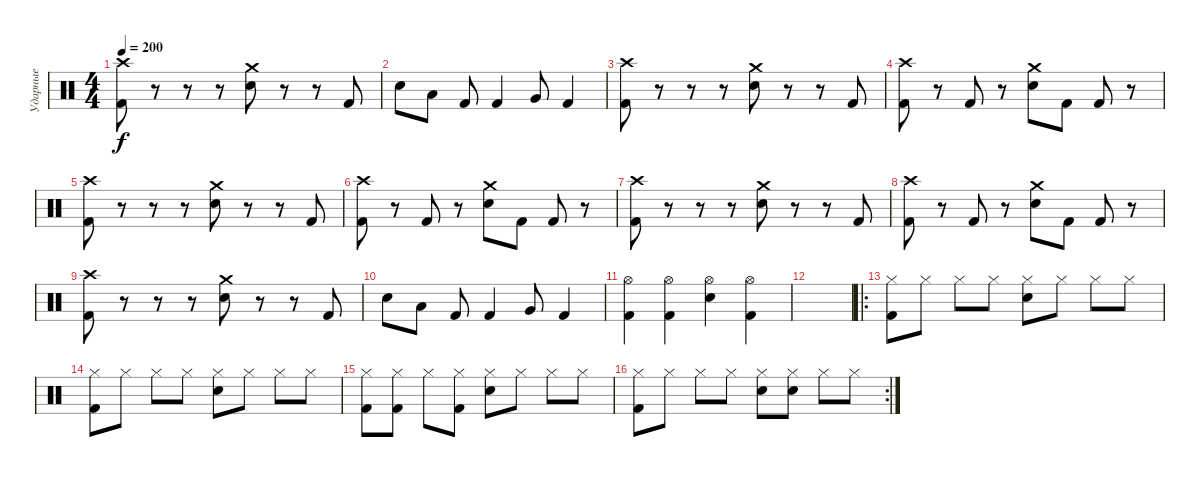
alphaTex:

\track ("Ударные" "Ударные") {instrument percussion}
\staff {score}
\articulation defaults
\ts (4 4)
\tempo 200
\clef neutral
\ks c
("Crash high (hit)" "Kick (hit) 2").8{dy f} r.8 r.8 r.8 ("Crash medium (hit)" "Electric Snare (hit)").8 r.8 r.8 "Kick (hit) 2".8 |
"Electric Snare (hit)".8 "Low Tom (hit)".8 "Kick (hit) 2".8 "Kick (hit) 2".4 "Very Low Tom (hit)".8 "Kick (hit) 2".4 |
("Crash high (hit)" "Kick (hit) 2").8 r.8 r.8 r.8 ("Crash medium (hit)" "Electric Snare (hit)").8 r.8 r.8 "Kick (hit) 2".8 |
("Crash high (hit)" "Kick (hit) 2").8 r.8 "Kick (hit) 2".8 r.8 ("Crash medium (hit)" "Electric Snare (hit)").8 "Kick (hit) 2".8 "Kick (hit) 2".8 r.8 |
("Crash high (hit)" "Kick (hit) 2").8 r.8 r.8 r.8 ("Crash medium (hit)" "Electric Snare (hit)").8 r.8 r.8 "Kick (hit) 2".8 |
("Crash high (hit)" "Kick (hit) 2").8 r.8 "Kick (hit) 2".8 r.8 ("Crash medium (hit)" "Electric Snare (hit)").8 "Kick (hit) 2".8 "Kick (hit) 2".8 r.8 |
("Crash high (hit)" "Kick (hit) 2").8 r.8 r.8 r.8 ("Crash medium (hit)" "Electric Snare (hit)").8 r.8 r.8 "Kick (hit) 2".8 |
("Crash high (hit)" "Kick (hit) 2").8 r.8 "Kick (hit) 2".8 r.8 ("Crash medium (hit)" "Electric Snare (hit)").8 "Kick (hit) 2".8 "Kick (hit) 2".8 r.8 |
("Crash high (hit)" "Kick (hit) 2").8 r.8 r.8 r.8 ("Crash medium (hit)" "Electric Snare (hit)").8 r.8 r.8 "Kick (hit) 2".8 |
"Electric Snare (hit)".8 "Low Tom (hit)".8 "Kick (hit) 2".8 "Kick (hit) 2".4 "Very Low Tom (hit)".8 "Kick (hit) 2".4 |
("Hi-Hat (open)" "Kick (hit) 2").4 ("Hi-Hat (open)" "Kick (hit) 2").4 ("Hi-Hat (open)" "Electric Snare (hit)").4 ("Hi-Hat (open)" "Kick (hit) 2").4 |
|
\ro
("Hi-Hat (closed)" "Kick (hit) 2").8 "Hi-Hat (closed)".8 "Hi-Hat (closed)".8 "Hi-Hat (closed)".8 ("Hi-Hat (closed)" "Electric Snare (hit)").8 "Hi-Hat (closed)".8 "Hi-Hat (closed)".8 "Hi-Hat (closed)".8 |
("Hi-Hat (closed)" "Kick (hit) 2").8 "Hi-Hat (closed)".8 "Hi-Hat (closed)".8 "Hi-Hat (closed)".8 ("Hi-Hat (closed)" "Electric Snare (hit)").8 "Hi-Hat (closed)".8 "Hi-Hat (closed)".8 "Hi-Hat (closed)".8 |
("Hi-Hat (closed)" "Kick (hit) 2").8 ("Hi-Hat (closed)" "Kick (hit) 2").8 "Hi-Hat (closed)".8 ("Hi-Hat (closed)" "Kick (hit) 2").8 ("Hi-Hat (closed)" "Electric Snare (hit)").8 "Hi-Hat (closed)".8 "Hi-Hat (closed)".8 "Hi-Hat (closed)".8 |
\rc 2
("Hi-Hat (closed)" "Kick (hit) 2").8 "Hi-Hat (closed)".8 "Hi-Hat (closed)".8 "Hi-Hat (closed)".8 ("Hi-Hat (closed)" "Electric Snare (hit)").8 ("Hi-Hat (closed)" "Electric Snare (hit)").8 "Hi-Hat (closed)".8 "Hi-Hat (closed)".8
